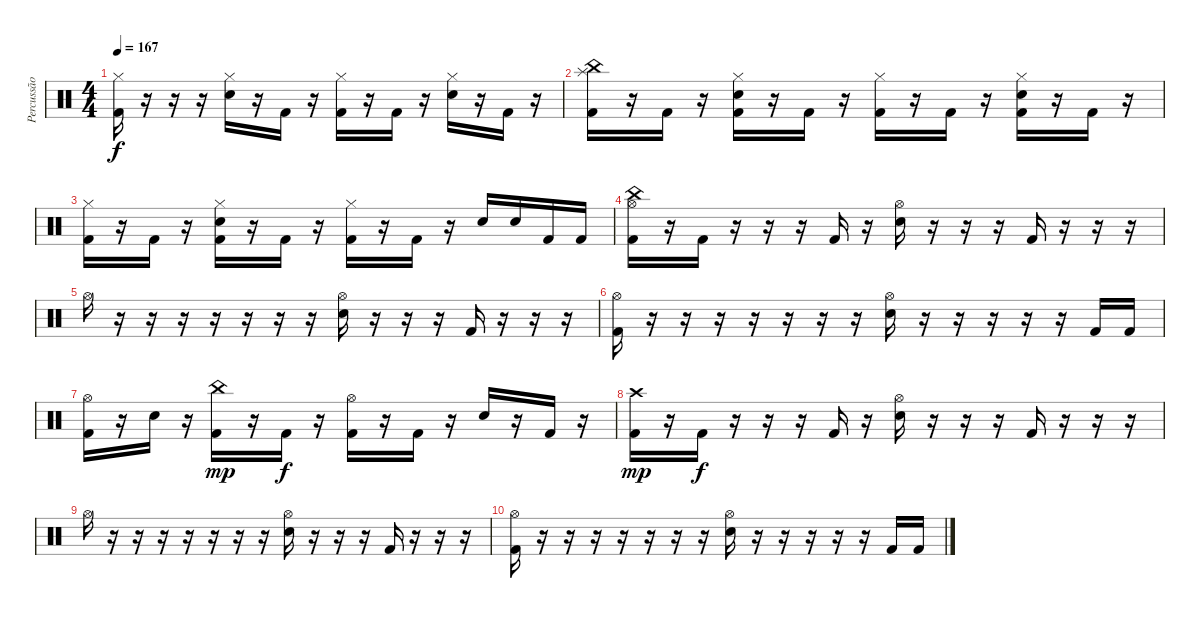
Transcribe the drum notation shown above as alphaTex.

\track ("Percussão" "Percussão") {instrument percussion}
\staff {score}
\articulation defaults
\ts (4 4)
\tempo 167
\clef neutral
\ks c
("Hi-Hat (closed)" "Kick (hit) 2").16{dy f} r.16 r.16 r.16 ("Hi-Hat (closed)" "Electric Snare (hit)").16 r.16 "Kick (hit) 2".16 r.16 ("Hi-Hat (closed)" "Kick (hit) 2").16 r.16 "Kick (hit) 2".16 r.16 ("Hi-Hat (closed)" "Electric Snare (hit)").16 r.16 "Kick (hit) 2".16 r.16 |
("Splash (hit)" "China (hit)" "Kick (hit) 2").16 r.16 "Kick (hit) 2".16 r.16 ("Hi-Hat (closed)" "Electric Snare (hit)" "Kick (hit) 2").16 r.16 "Kick (hit) 2".16 r.16 ("Hi-Hat (closed)" "Kick (hit) 2").16 r.16 "Kick (hit) 2".16 r.16 ("Hi-Hat (closed)" "Electric Snare (hit)" "Kick (hit) 2").16 r.16 "Kick (hit) 2".16 r.16 |
("Hi-Hat (closed)" "Kick (hit) 2").16 r.16 "Kick (hit) 2".16 r.16 ("Hi-Hat (closed)" "Electric Snare (hit)" "Kick (hit) 2").16 r.16 "Kick (hit) 2".16 r.16 ("Hi-Hat (closed)" "Kick (hit) 2").16 r.16 "Kick (hit) 2".16 r.16 "Electric Snare (hit)".16 "Electric Snare (hit)".16 "Kick (hit) 2".16 "Kick (hit) 2".16 |
("China (hit)" "Hi-Hat (open)" "Kick (hit) 2").16 r.16 "Kick (hit) 2".16 r.16 r.16 r.16 "Kick (hit) 2".16 r.16 ("Hi-Hat (open)" "Electric Snare (hit)").16 r.16 r.16 r.16 "Kick (hit) 2".16 r.16 r.16 r.16 |
"Hi-Hat (open)".16 r.16 r.16 r.16 r.16 r.16 r.16 r.16 ("Hi-Hat (open)" "Electric Snare (hit)").16 r.16 r.16 r.16 "Kick (hit) 2".16 r.16 r.16 r.16 |
("Hi-Hat (open)" "Kick (hit) 2").16 r.16 r.16 r.16 r.16 r.16 r.16 r.16 ("Hi-Hat (open)" "Electric Snare (hit)").16 r.16 r.16 r.16 r.16 r.16 "Kick (hit) 2".16 "Kick (hit) 2".16 |
("Hi-Hat (open)" "Kick (hit) 2").16 r.16 "Electric Snare (hit)".16 r.16 ("China (hit)" "Kick (hit) 2").16{dy mp} r.16 "Kick (hit) 2".16{dy f} r.16 ("Hi-Hat (open)" "Kick (hit) 2").16 r.16 "Kick (hit) 2".16 r.16 "Electric Snare (hit)".16 r.16 "Kick (hit) 2".16 r.16 |
("Crash high (hit)" "Kick (hit) 2").16{dy mp} r.16 "Kick (hit) 2".16{dy f} r.16 r.16 r.16 "Kick (hit) 2".16 r.16 ("Hi-Hat (open)" "Electric Snare (hit)").16 r.16 r.16 r.16 "Kick (hit) 2".16 r.16 r.16 r.16 |
"Hi-Hat (open)".16 r.16 r.16 r.16 r.16 r.16 r.16 r.16 ("Hi-Hat (open)" "Electric Snare (hit)").16 r.16 r.16 r.16 "Kick (hit) 2".16 r.16 r.16 r.16 |
("Hi-Hat (open)" "Kick (hit) 2").16 r.16 r.16 r.16 r.16 r.16 r.16 r.16 ("Hi-Hat (open)" "Electric Snare (hit)").16 r.16 r.16 r.16 r.16 r.16 "Kick (hit) 2".16 "Kick (hit) 2".16
